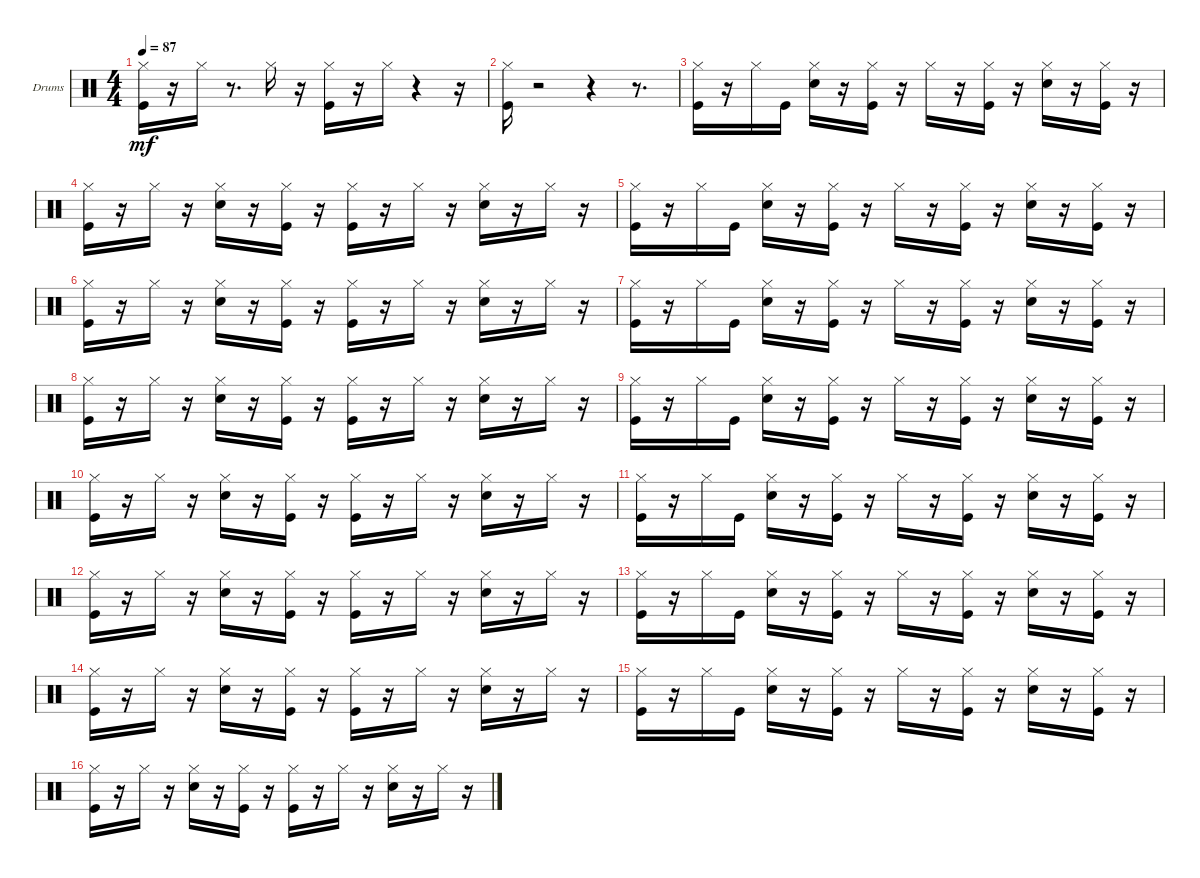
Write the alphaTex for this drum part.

\bracketExtendMode groupsimilarinstruments
\firstSystemTrackNameOrientation horizontal
\otherSystemsTrackNameOrientation horizontal
\track ("MIDI out" "Drums") {instrument percussion}
\staff {score}
\articulation defaults
\ts (4 4)
\tempo 87
\clef neutral
\ks c
("Kick (hit)" "Hi-Hat (closed)").16{dy mf} r.16 "Hi-Hat (closed)".16 r.8{d} "Hi-Hat (closed)".16 r.16 ("Kick (hit)" "Hi-Hat (closed)").16 r.16 "Hi-Hat (closed)".16 r.4 r.16 |
("Kick (hit)" "Hi-Hat (closed)").16 r.2 r.4 r.8{d} |
("Hi-Hat (closed)" "Kick (hit)").16 r.16 "Hi-Hat (closed)".16 "Kick (hit)".16 ("Snare (hit) 2" "Hi-Hat (closed)").16 r.16 ("Hi-Hat (closed)" "Kick (hit)").16 r.16 "Hi-Hat (closed)".16 r.16 ("Hi-Hat (closed)" "Kick (hit)").16 r.16 ("Hi-Hat (closed)" "Snare (hit) 2").16 r.16 ("Kick (hit)" "Hi-Hat (closed)").16 r.16 |
("Kick (hit)" "Hi-Hat (closed)").16 r.16 "Hi-Hat (closed)".16 r.16 ("Snare (hit) 2" "Hi-Hat (closed)").16 r.16 ("Hi-Hat (closed)" "Kick (hit)").16 r.16 ("Hi-Hat (closed)" "Kick (hit)").16 r.16 "Hi-Hat (closed)".16 r.16 ("Snare (hit) 2" "Hi-Hat (closed)").16 r.16 "Hi-Hat (closed)".16 r.16 |
("Hi-Hat (closed)" "Kick (hit)").16 r.16 "Hi-Hat (closed)".16 "Kick (hit)".16 ("Hi-Hat (closed)" "Snare (hit) 2").16 r.16 ("Hi-Hat (closed)" "Kick (hit)").16 r.16 "Hi-Hat (closed)".16 r.16 ("Hi-Hat (closed)" "Kick (hit)").16 r.16 ("Snare (hit) 2" "Hi-Hat (closed)").16 r.16 ("Kick (hit)" "Hi-Hat (closed)").16 r.16 |
("Kick (hit)" "Hi-Hat (closed)").16 r.16 "Hi-Hat (closed)".16 r.16 ("Hi-Hat (closed)" "Snare (hit) 2").16 r.16 ("Kick (hit)" "Hi-Hat (closed)").16 r.16 ("Hi-Hat (closed)" "Kick (hit)").16 r.16 "Hi-Hat (closed)".16 r.16 ("Snare (hit) 2" "Hi-Hat (closed)").16 r.16 "Hi-Hat (closed)".16 r.16 |
("Kick (hit)" "Hi-Hat (closed)").16 r.16 "Hi-Hat (closed)".16 "Kick (hit)".16 ("Hi-Hat (closed)" "Snare (hit) 2").16 r.16 ("Kick (hit)" "Hi-Hat (closed)").16 r.16 "Hi-Hat (closed)".16 r.16 ("Kick (hit)" "Hi-Hat (closed)").16 r.16 ("Hi-Hat (closed)" "Snare (hit) 2").16 r.16 ("Hi-Hat (closed)" "Kick (hit)").16 r.16 |
("Kick (hit)" "Hi-Hat (closed)").16 r.16 "Hi-Hat (closed)".16 r.16 ("Snare (hit) 2" "Hi-Hat (closed)").16 r.16 ("Hi-Hat (closed)" "Kick (hit)").16 r.16 ("Hi-Hat (closed)" "Kick (hit)").16 r.16 "Hi-Hat (closed)".16 r.16 ("Snare (hit) 2" "Hi-Hat (closed)").16 r.16 "Hi-Hat (closed)".16 r.16 |
("Hi-Hat (closed)" "Kick (hit)").16 r.16 "Hi-Hat (closed)".16 "Kick (hit)".16 ("Hi-Hat (closed)" "Snare (hit) 2").16 r.16 ("Hi-Hat (closed)" "Kick (hit)").16 r.16 "Hi-Hat (closed)".16 r.16 ("Hi-Hat (closed)" "Kick (hit)").16 r.16 ("Hi-Hat (closed)" "Snare (hit) 2").16 r.16 ("Kick (hit)" "Hi-Hat (closed)").16 r.16 |
("Kick (hit)" "Hi-Hat (closed)").16 r.16 "Hi-Hat (closed)".16 r.16 ("Snare (hit) 2" "Hi-Hat (closed)").16 r.16 ("Kick (hit)" "Hi-Hat (closed)").16 r.16 ("Hi-Hat (closed)" "Kick (hit)").16 r.16 "Hi-Hat (closed)".16 r.16 ("Snare (hit) 2" "Hi-Hat (closed)").16 r.16 "Hi-Hat (closed)".16 r.16 |
("Kick (hit)" "Hi-Hat (closed)").16 r.16 "Hi-Hat (closed)".16 "Kick (hit)".16 ("Hi-Hat (closed)" "Snare (hit) 2").16 r.16 ("Kick (hit)" "Hi-Hat (closed)").16 r.16 "Hi-Hat (closed)".16 r.16 ("Kick (hit)" "Hi-Hat (closed)").16 r.16 ("Hi-Hat (closed)" "Snare (hit) 2").16 r.16 ("Hi-Hat (closed)" "Kick (hit)").16 r.16 |
("Kick (hit)" "Hi-Hat (closed)").16 r.16 "Hi-Hat (closed)".16 r.16 ("Snare (hit) 2" "Hi-Hat (closed)").16 r.16 ("Hi-Hat (closed)" "Kick (hit)").16 r.16 ("Hi-Hat (closed)" "Kick (hit)").16 r.16 "Hi-Hat (closed)".16 r.16 ("Snare (hit) 2" "Hi-Hat (closed)").16 r.16 "Hi-Hat (closed)".16 r.16 |
("Hi-Hat (closed)" "Kick (hit)").16 r.16 "Hi-Hat (closed)".16 "Kick (hit)".16 ("Hi-Hat (closed)" "Snare (hit) 2").16 r.16 ("Kick (hit)" "Hi-Hat (closed)").16 r.16 "Hi-Hat (closed)".16 r.16 ("Kick (hit)" "Hi-Hat (closed)").16 r.16 ("Hi-Hat (closed)" "Snare (hit) 2").16 r.16 ("Kick (hit)" "Hi-Hat (closed)").16 r.16 |
("Hi-Hat (closed)" "Kick (hit)").16 r.16 "Hi-Hat (closed)".16 r.16 ("Hi-Hat (closed)" "Snare (hit) 2").16 r.16 ("Hi-Hat (closed)" "Kick (hit)").16 r.16 ("Hi-Hat (closed)" "Kick (hit)").16 r.16 "Hi-Hat (closed)".16 r.16 ("Snare (hit) 2" "Hi-Hat (closed)").16 r.16 "Hi-Hat (closed)".16 r.16 |
("Kick (hit)" "Hi-Hat (closed)").16 r.16 "Hi-Hat (closed)".16 "Kick (hit)".16 ("Snare (hit) 2" "Hi-Hat (closed)").16 r.16 ("Kick (hit)" "Hi-Hat (closed)").16 r.16 "Hi-Hat (closed)".16 r.16 ("Kick (hit)" "Hi-Hat (closed)").16 r.16 ("Snare (hit) 2" "Hi-Hat (closed)").16 r.16 ("Hi-Hat (closed)" "Kick (hit)").16 r.16 |
("Kick (hit)" "Hi-Hat (closed)").16 r.16 "Hi-Hat (closed)".16 r.16 ("Hi-Hat (closed)" "Snare (hit) 2").16 r.16 ("Kick (hit)" "Hi-Hat (closed)").16 r.16 ("Hi-Hat (closed)" "Kick (hit)").16 r.16 "Hi-Hat (closed)".16 r.16 ("Hi-Hat (closed)" "Snare (hit) 2").16 r.16 "Hi-Hat (closed)".16 r.16
